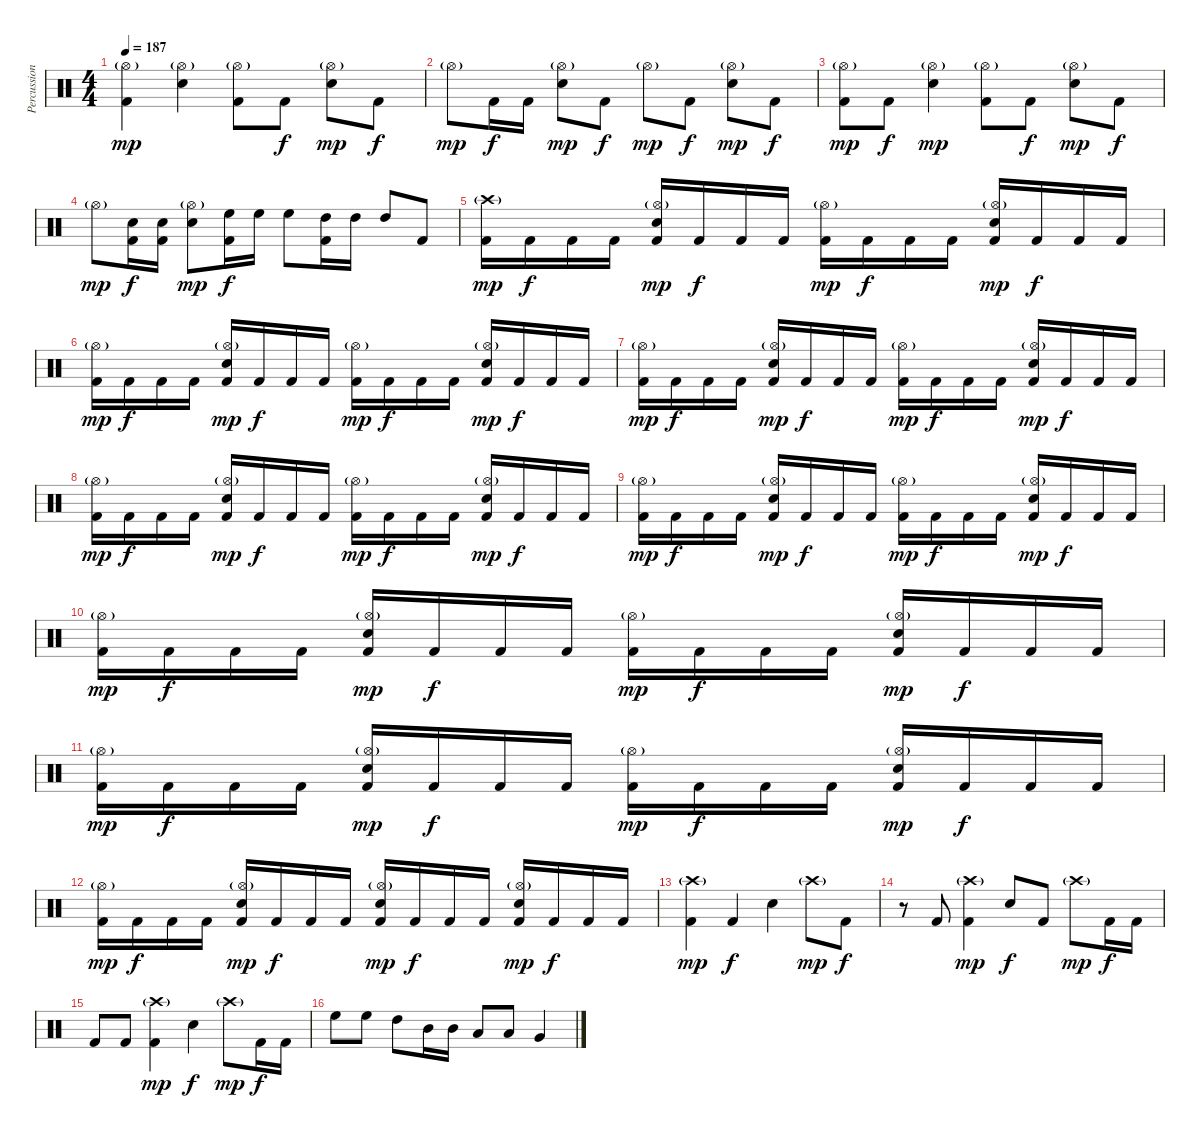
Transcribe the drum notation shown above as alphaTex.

\track ("Percussion" "Percussion") {instrument percussion}
\staff {score}
\articulation defaults
\ts (4 4)
\tempo 187
\clef neutral
\ks c
("Kick (hit) 2" "Hi-Hat (open)"{g}).4{dy mp} ("Snare (hit) 2" "Hi-Hat (open)"{g}).4 ("Kick (hit) 2" "Hi-Hat (open)"{g}).8 "Kick (hit) 2".8{dy f} ("Snare (hit) 2" "Hi-Hat (open)"{g}).8{dy mp} "Kick (hit) 2".8{dy f} |
"Hi-Hat (open)"{g}.8{dy mp} "Kick (hit) 2".16{dy f} "Kick (hit) 2".16 ("Snare (hit) 2" "Hi-Hat (open)"{g}).8{dy mp} "Kick (hit) 2".8{dy f} "Hi-Hat (open)"{g}.8{dy mp} "Kick (hit) 2".8{dy f} ("Snare (hit) 2" "Hi-Hat (open)"{g}).8{dy mp} "Kick (hit) 2".8{dy f} |
("Kick (hit) 2" "Hi-Hat (open)"{g}).8{dy mp} "Kick (hit) 2".8{dy f} ("Snare (hit) 2" "Hi-Hat (open)"{g}).4{dy mp} ("Kick (hit) 2" "Hi-Hat (open)"{g}).8 "Kick (hit) 2".8{dy f} ("Snare (hit) 2" "Hi-Hat (open)"{g}).8{dy mp} "Kick (hit) 2".8{dy f} |
"Hi-Hat (open)"{g}.8{dy mp} ("Snare (hit) 2" "Kick (hit) 2").16{dy f} ("Kick (hit) 2" "Snare (hit) 2").16 ("Snare (hit) 2" "Hi-Hat (open)"{g}).8{dy mp} ("Kick (hit) 2" "High Floor Tom (hit)").16{dy f} "High Floor Tom (hit)".16 "High Floor Tom (hit)".8 ("Kick (hit) 2" "High Tom (hit)").16 "High Tom (hit)".16 "High Tom (hit)".8 "Kick (hit) 2".8 |
("Kick (hit) 2" "Crash high (hit)"{g}).16{dy mp} "Kick (hit) 2".16{dy f} "Kick (hit) 2".16 "Kick (hit) 2".16 ("Kick (hit) 2" "Snare (hit) 2" "Hi-Hat (open)"{g}).16{dy mp} "Kick (hit) 2".16{dy f} "Kick (hit) 2".16 "Kick (hit) 2".16 ("Kick (hit) 2" "Hi-Hat (open)"{g}).16{dy mp} "Kick (hit) 2".16{dy f} "Kick (hit) 2".16 "Kick (hit) 2".16 ("Kick (hit) 2" "Snare (hit) 2" "Hi-Hat (open)"{g}).16{dy mp} "Kick (hit) 2".16{dy f} "Kick (hit) 2".16 "Kick (hit) 2".16 |
("Kick (hit) 2" "Hi-Hat (open)"{g}).16{dy mp} "Kick (hit) 2".16{dy f} "Kick (hit) 2".16 "Kick (hit) 2".16 ("Kick (hit) 2" "Snare (hit) 2" "Hi-Hat (open)"{g}).16{dy mp} "Kick (hit) 2".16{dy f} "Kick (hit) 2".16 "Kick (hit) 2".16 ("Kick (hit) 2" "Hi-Hat (open)"{g}).16{dy mp} "Kick (hit) 2".16{dy f} "Kick (hit) 2".16 "Kick (hit) 2".16 ("Kick (hit) 2" "Snare (hit) 2" "Hi-Hat (open)"{g}).16{dy mp} "Kick (hit) 2".16{dy f} "Kick (hit) 2".16 "Kick (hit) 2".16 |
("Kick (hit) 2" "Hi-Hat (open)"{g}).16{dy mp} "Kick (hit) 2".16{dy f} "Kick (hit) 2".16 "Kick (hit) 2".16 ("Kick (hit) 2" "Snare (hit) 2" "Hi-Hat (open)"{g}).16{dy mp} "Kick (hit) 2".16{dy f} "Kick (hit) 2".16 "Kick (hit) 2".16 ("Kick (hit) 2" "Hi-Hat (open)"{g}).16{dy mp} "Kick (hit) 2".16{dy f} "Kick (hit) 2".16 "Kick (hit) 2".16 ("Kick (hit) 2" "Snare (hit) 2" "Hi-Hat (open)"{g}).16{dy mp} "Kick (hit) 2".16{dy f} "Kick (hit) 2".16 "Kick (hit) 2".16 |
("Kick (hit) 2" "Hi-Hat (open)"{g}).16{dy mp} "Kick (hit) 2".16{dy f} "Kick (hit) 2".16 "Kick (hit) 2".16 ("Kick (hit) 2" "Snare (hit) 2" "Hi-Hat (open)"{g}).16{dy mp} "Kick (hit) 2".16{dy f} "Kick (hit) 2".16 "Kick (hit) 2".16 ("Kick (hit) 2" "Hi-Hat (open)"{g}).16{dy mp} "Kick (hit) 2".16{dy f} "Kick (hit) 2".16 "Kick (hit) 2".16 ("Kick (hit) 2" "Snare (hit) 2" "Hi-Hat (open)"{g}).16{dy mp} "Kick (hit) 2".16{dy f} "Kick (hit) 2".16 "Kick (hit) 2".16 |
("Kick (hit) 2" "Hi-Hat (open)"{g}).16{dy mp} "Kick (hit) 2".16{dy f} "Kick (hit) 2".16 "Kick (hit) 2".16 ("Kick (hit) 2" "Snare (hit) 2" "Hi-Hat (open)"{g}).16{dy mp} "Kick (hit) 2".16{dy f} "Kick (hit) 2".16 "Kick (hit) 2".16 ("Kick (hit) 2" "Hi-Hat (open)"{g}).16{dy mp} "Kick (hit) 2".16{dy f} "Kick (hit) 2".16 "Kick (hit) 2".16 ("Kick (hit) 2" "Snare (hit) 2" "Hi-Hat (open)"{g}).16{dy mp} "Kick (hit) 2".16{dy f} "Kick (hit) 2".16 "Kick (hit) 2".16 |
("Kick (hit) 2" "Hi-Hat (open)"{g}).16{dy mp} "Kick (hit) 2".16{dy f} "Kick (hit) 2".16 "Kick (hit) 2".16 ("Kick (hit) 2" "Snare (hit) 2" "Hi-Hat (open)"{g}).16{dy mp} "Kick (hit) 2".16{dy f} "Kick (hit) 2".16 "Kick (hit) 2".16 ("Kick (hit) 2" "Hi-Hat (open)"{g}).16{dy mp} "Kick (hit) 2".16{dy f} "Kick (hit) 2".16 "Kick (hit) 2".16 ("Kick (hit) 2" "Snare (hit) 2" "Hi-Hat (open)"{g}).16{dy mp} "Kick (hit) 2".16{dy f} "Kick (hit) 2".16 "Kick (hit) 2".16 |
("Kick (hit) 2" "Hi-Hat (open)"{g}).16{dy mp} "Kick (hit) 2".16{dy f} "Kick (hit) 2".16 "Kick (hit) 2".16 ("Kick (hit) 2" "Snare (hit) 2" "Hi-Hat (open)"{g}).16{dy mp} "Kick (hit) 2".16{dy f} "Kick (hit) 2".16 "Kick (hit) 2".16 ("Kick (hit) 2" "Hi-Hat (open)"{g}).16{dy mp} "Kick (hit) 2".16{dy f} "Kick (hit) 2".16 "Kick (hit) 2".16 ("Kick (hit) 2" "Snare (hit) 2" "Hi-Hat (open)"{g}).16{dy mp} "Kick (hit) 2".16{dy f} "Kick (hit) 2".16 "Kick (hit) 2".16 |
("Kick (hit) 2" "Hi-Hat (open)"{g}).16{dy mp} "Kick (hit) 2".16{dy f} "Kick (hit) 2".16 "Kick (hit) 2".16 ("Kick (hit) 2" "Snare (hit) 2" "Hi-Hat (open)"{g}).16{dy mp} "Kick (hit) 2".16{dy f} "Kick (hit) 2".16 "Kick (hit) 2".16 ("Kick (hit) 2" "Hi-Hat (open)"{g} "Snare (hit) 2").16{dy mp} "Kick (hit) 2".16{dy f} "Kick (hit) 2".16 "Kick (hit) 2".16 ("Kick (hit) 2" "Snare (hit) 2" "Hi-Hat (open)"{g}).16{dy mp} "Kick (hit) 2".16{dy f} "Kick (hit) 2".16 "Kick (hit) 2".16 |
("Kick (hit) 2" "Crash high (hit)"{g}).4{dy mp} "Kick (hit) 2".4{dy f} "Snare (hit) 2".4 "Crash high (hit)"{g}.8{dy mp} "Kick (hit) 2".8{dy f} |
r.8 "Kick (hit) 2".8 ("Kick (hit) 2" "Crash high (hit)"{g}).4{dy mp} "Snare (hit) 2".8{dy f} "Kick (hit) 2".8 "Crash high (hit)"{g}.8{dy mp} "Kick (hit) 2".16{dy f} "Kick (hit) 2".16 |
"Kick (hit) 2".8 "Kick (hit) 2".8 ("Kick (hit) 2" "Crash high (hit)"{g}).4{dy mp} "Snare (hit) 2".4{dy f} "Crash high (hit)"{g}.8{dy mp} "Kick (hit) 2".16{dy f} "Kick (hit) 2".16 |
"High Floor Tom (hit)".8 "High Floor Tom (hit)".8 "High Tom (hit)".8 "Mid Tom (hit)".16 "Mid Tom (hit)".16 "Low Tom (hit)".8 "Low Tom (hit)".8 "Very Low Tom (hit)".4
